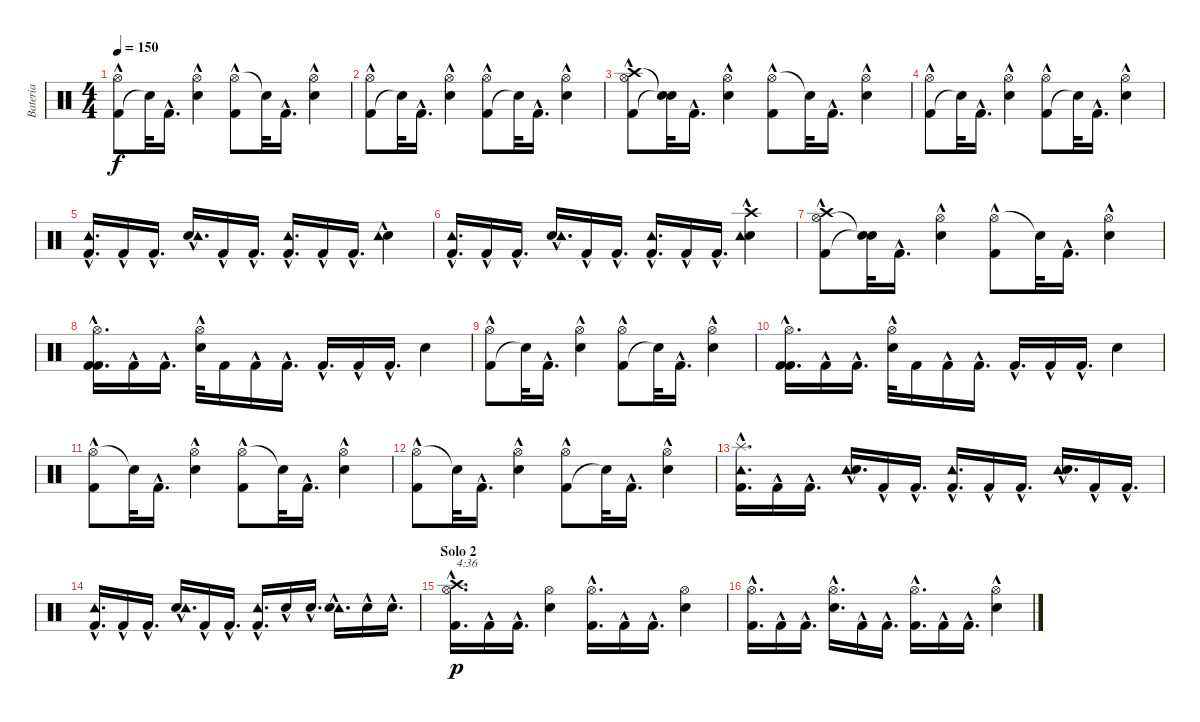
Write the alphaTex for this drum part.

\track ("Bateria" "Bateria") {instrument percussion}
\staff {score}
\articulation defaults
\ts (4 4)
\tempo 150
\clef neutral
\ks c
("Kick (hit) 2"{hac} "Hi-Hat (open)").8{dy f} "Snare (hit)"{t}.32 "Kick (hit) 2"{hac}.16{d} ("Snare (hit) 2"{hac} "Hi-Hat (open)").4 ("Hi-Hat (open)" "Kick (hit) 2"{hac}).8 "Snare (hit)"{t}.32 "Kick (hit) 2"{hac}.16{d} ("Snare (hit) 2"{hac} "Hi-Hat (open)").4 |
("Kick (hit) 2"{hac} "Hi-Hat (open)").8 "Snare (hit)"{t}.32 "Kick (hit) 2"{hac}.16{d} ("Snare (hit) 2"{hac} "Hi-Hat (open)").4 ("Kick (hit) 2"{hac} "Hi-Hat (open)").8 "Snare (hit)"{t}.32 "Kick (hit) 2"{hac}.16{d} ("Snare (hit) 2"{hac} "Hi-Hat (open)").4 |
("Kick (hit) 2"{hac} "Crash high (hit)" "Hi-Hat (open)").8 ("Snare (hit)"{t} "Snare (hit)"{t}).32 "Kick (hit) 2"{hac}.16{d} ("Hi-Hat (open)" "Snare (hit) 2"{hac}).4 ("Hi-Hat (open)" "Kick (hit) 2"{hac}).8 "Snare (hit)"{t}.32 "Kick (hit) 2"{hac}.16{d} ("Hi-Hat (open)" "Snare (hit) 2"{hac}).4 |
("Kick (hit) 2"{hac} "Hi-Hat (open)").8 "Snare (hit)"{t}.32 "Kick (hit) 2"{hac}.16{d} ("Hi-Hat (open)" "Snare (hit) 2"{hac}).4 ("Kick (hit) 2"{hac} "Hi-Hat (open)").8 "Snare (hit)"{t}.32 "Kick (hit) 2"{hac}.16{d} ("Snare (hit) 2"{hac} "Hi-Hat (open)").4 |
("Tambourine (hit)" "Kick (hit) 2"{hac}).16{d} "Kick (hit) 2"{hac}.16 "Kick (hit) 2"{hac}.16{d} ("Snare (hit) 2"{hac} "Tambourine (hit)").16{d} "Kick (hit) 2"{hac}.16 "Kick (hit) 2"{hac}.16{d} ("Tambourine (hit)" "Kick (hit) 2"{hac}).16{d} "Kick (hit) 2"{hac}.16 "Kick (hit) 2"{hac}.16{d} ("Snare (hit) 2"{hac} "Tambourine (hit)").4 |
("Kick (hit) 2"{hac} "Tambourine (hit)").16{d} "Kick (hit) 2"{hac}.16 "Kick (hit) 2"{hac}.16{d} ("Snare (hit) 2"{hac} "Tambourine (hit)").16{d} "Kick (hit) 2"{hac}.16 "Kick (hit) 2"{hac}.16{d} ("Kick (hit) 2"{hac} "Tambourine (hit)").16{d} "Kick (hit) 2"{hac}.16 "Kick (hit) 2"{hac}.16{d} ("Snare (hit) 2"{hac} "Tambourine (hit)" "Crash high (hit)").4 |
("Hi-Hat (open)" "Kick (hit) 2"{hac} "Crash high (hit)").8 ("Snare (hit)"{t} "Snare (hit)"{t}).32 "Kick (hit) 2"{hac}.16{d} ("Hi-Hat (open)" "Snare (hit) 2"{hac}).4 ("Hi-Hat (open)" "Kick (hit) 2"{hac}).8 "Snare (hit)"{t}.32 "Kick (hit) 2"{hac}.16{d} ("Hi-Hat (open)" "Snare (hit) 2"{hac}).4 |
("Hi-Hat (open)" "Kick (hit) 2"{hac} "Kick (hit) 2"{hac}).16{d} "Kick (hit) 2"{hac}.16 "Kick (hit) 2"{hac}.16{d} ("Snare (hit) 2"{hac} "Hi-Hat (open)").32 "Kick (hit) 2".16 "Kick (hit) 2"{hac}.16 "Kick (hit) 2"{hac}.16{d} "Kick (hit) 2"{hac}.16{d} "Kick (hit) 2"{hac}.16 "Kick (hit) 2"{hac}.16{d} "Snare (hit) 2".4 |
("Kick (hit) 2"{hac} "Hi-Hat (open)").8 "Snare (hit)"{t}.32 "Kick (hit) 2"{hac}.16{d} ("Snare (hit) 2"{hac} "Hi-Hat (open)").4 ("Kick (hit) 2"{hac} "Hi-Hat (open)").8 "Snare (hit)"{t}.32 "Kick (hit) 2"{hac}.16{d} ("Snare (hit) 2"{hac} "Hi-Hat (open)").4 |
("Kick (hit) 2"{hac} "Hi-Hat (open)" "Kick (hit) 2"{hac}).16{d} "Kick (hit) 2"{hac}.16 "Kick (hit) 2"{hac}.16{d} ("Snare (hit) 2"{hac} "Hi-Hat (open)").32 "Kick (hit) 2".16 "Kick (hit) 2"{hac}.16 "Kick (hit) 2"{hac}.16{d} "Kick (hit) 2"{hac}.16{d} "Kick (hit) 2"{hac}.16 "Kick (hit) 2"{hac}.16{d} "Snare (hit) 2".4 |
("Hi-Hat (open)" "Kick (hit) 2"{hac}).8 "Snare (hit)"{t}.32 "Kick (hit) 2"{hac}.16{d} ("Hi-Hat (open)" "Snare (hit) 2"{hac}).4 ("Hi-Hat (open)" "Kick (hit) 2"{hac}).8 "Snare (hit)"{t}.32 "Kick (hit) 2"{hac}.16{d} ("Hi-Hat (open)" "Snare (hit) 2"{hac}).4 |
("Hi-Hat (open)" "Kick (hit) 2"{hac}).8 "Snare (hit)"{t}.32 "Kick (hit) 2"{hac}.16{d} ("Hi-Hat (open)" "Snare (hit) 2"{hac}).4 ("Kick (hit) 2"{hac} "Hi-Hat (open)").8 "Snare (hit)"{t}.32 "Kick (hit) 2"{hac}.16{d} ("Snare (hit) 2"{hac} "Hi-Hat (open)").4 |
("Splash (hit)" "Kick (hit) 2"{hac} "Tambourine (hit)").16{d} "Kick (hit) 2"{hac}.16 "Kick (hit) 2"{hac}.16{d} ("Tambourine (hit)" "Snare (hit) 2"{hac}).16{d} "Kick (hit) 2"{hac}.16 "Kick (hit) 2"{hac}.16{d} ("Tambourine (hit)" "Kick (hit) 2"{hac}).16{d} "Kick (hit) 2"{hac}.16 "Kick (hit) 2"{hac}.16{d} ("Tambourine (hit)" "Snare (hit) 2"{hac}).16{d} "Kick (hit) 2"{hac}.16 "Kick (hit) 2"{hac}.16{d} |
("Kick (hit) 2"{hac} "Tambourine (hit)").16{d} "Kick (hit) 2"{hac}.16 "Kick (hit) 2"{hac}.16{d} ("Snare (hit) 2"{hac} "Tambourine (hit)").16{d} "Kick (hit) 2"{hac}.16 "Kick (hit) 2"{hac}.16{d} ("Kick (hit) 2"{hac} "Tambourine (hit)").16{d} "Snare (hit) 2"{hac}.16 "Snare (hit) 2"{hac}.16{d} ("Tambourine (hit)" "Snare (hit) 2"{hac}).16{d} "Snare (hit) 2"{hac}.16 "Snare (hit) 2"{hac}.16{d} |
\section ("" "Solo 2")
("Kick (hit) 2"{hac} "Hi-Hat (open)" "Crash high (hit)").16{d txt "4:36" dy p} "Kick (hit) 2"{hac}.16 "Kick (hit) 2"{hac}.16{d} ("Snare (hit) 2" "Hi-Hat (open)").4 ("Kick (hit) 2"{hac} "Hi-Hat (open)").16{d} "Kick (hit) 2"{hac}.16 "Kick (hit) 2"{hac}.16{d} ("Snare (hit) 2" "Hi-Hat (open)").4 |
("Kick (hit) 2"{hac} "Hi-Hat (open)").16{d} "Kick (hit) 2"{hac}.16 "Kick (hit) 2"{hac}.16{d} ("Snare (hit) 2"{hac} "Hi-Hat (open)").16{d} "Kick (hit) 2"{hac}.16 "Kick (hit) 2"{hac}.16{d} ("Kick (hit) 2"{hac} "Hi-Hat (open)").16{d} "Kick (hit) 2"{hac}.16 "Kick (hit) 2"{hac}.16{d} ("Electric Snare (hit)"{hac} "Hi-Hat (open)").4
